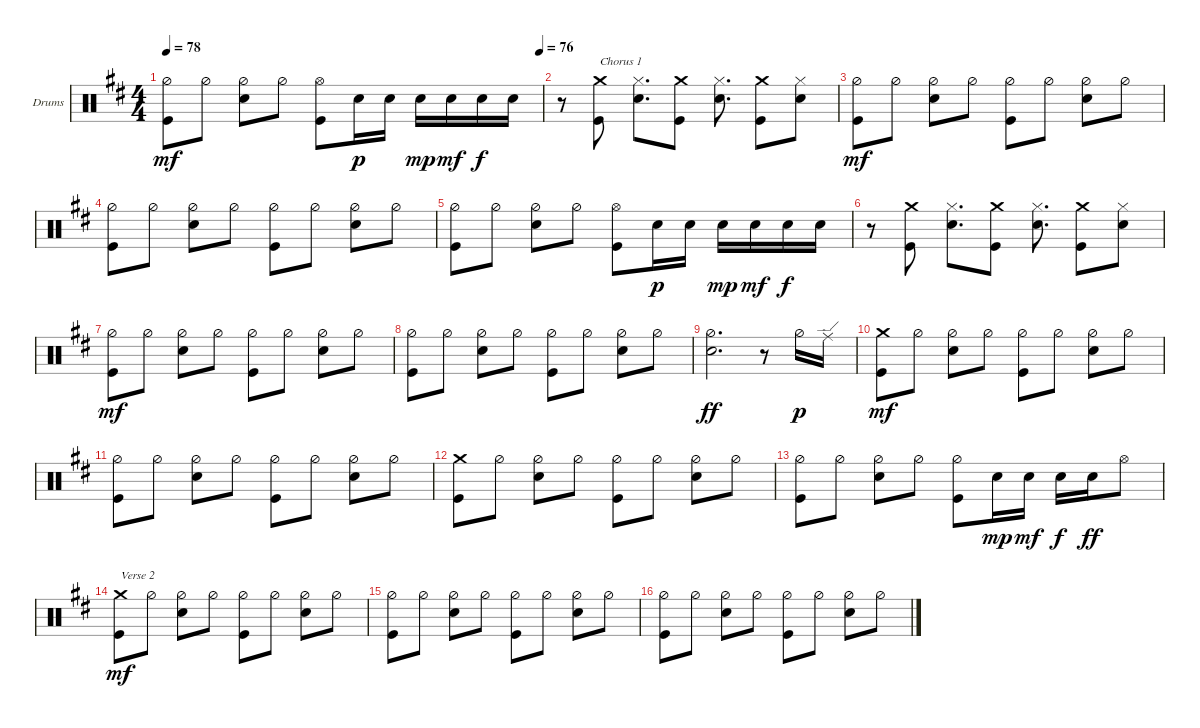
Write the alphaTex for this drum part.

\defaultSystemsLayout 4
\bracketExtendMode groupsimilarinstruments
\firstSystemTrackNameOrientation horizontal
\otherSystemsTrackNameOrientation horizontal
\track ("Drums" "Drums") {instrument percussion}
\staff {score}
\articulation defaults
\ts (4 4)
\tempo 78
\tempo (76 0.99375)
\clef neutral
\ks bminor
("Hi-Hat (half)" "Kick (hit)").8{dy mf} "Hi-Hat (half)".8 ("Hi-Hat (half)" "Snare (hit) 2").8 "Hi-Hat (half)".8 ("Hi-Hat (open)" "Kick (hit)").8 "Snare (hit) 2".16{dy p} "Snare (hit) 2".16 "Snare (hit) 2".16{dy mp} "Snare (hit) 2".16{dy mf} "Snare (hit) 2".16{dy f} "Snare (hit) 2".16 |
r.8 ("Kick (hit)" "Crash medium (hit)").8{txt "Chorus 1"} ("Snare (hit) 2" "Hi-Hat (closed)").8{d} ("Kick (hit)" "Crash medium (hit)").8 ("Snare (hit) 2" "Hi-Hat (closed)").8{d} ("Kick (hit)" "Crash medium (hit)").8 ("Snare (hit) 2" "Hi-Hat (closed)").8 |
("Hi-Hat (half)" "Kick (hit)").8{dy mf} "Hi-Hat (half)".8 ("Hi-Hat (half)" "Snare (hit) 2").8 "Hi-Hat (half)".8 ("Hi-Hat (half)" "Kick (hit)").8 "Hi-Hat (half)".8 ("Hi-Hat (half)" "Snare (hit) 2").8 "Hi-Hat (half)".8 |
("Hi-Hat (half)" "Kick (hit)").8 "Hi-Hat (half)".8 ("Hi-Hat (half)" "Snare (hit) 2").8 "Hi-Hat (half)".8 ("Hi-Hat (half)" "Kick (hit)").8 "Hi-Hat (half)".8 ("Hi-Hat (half)" "Snare (hit) 2").8 "Hi-Hat (half)".8 |
("Hi-Hat (half)" "Kick (hit)").8 "Hi-Hat (half)".8 ("Hi-Hat (half)" "Snare (hit) 2").8 "Hi-Hat (half)".8 ("Hi-Hat (open)" "Kick (hit)").8 "Snare (hit) 2".16{dy p} "Snare (hit) 2".16 "Snare (hit) 2".16{dy mp} "Snare (hit) 2".16{dy mf} "Snare (hit) 2".16{dy f} "Snare (hit) 2".16 |
r.8 ("Kick (hit)" "Crash medium (hit)").8 ("Snare (hit) 2" "Hi-Hat (closed)").8{d} ("Kick (hit)" "Crash medium (hit)").8 ("Snare (hit) 2" "Hi-Hat (closed)").8{d} ("Kick (hit)" "Crash medium (hit)").8 ("Snare (hit) 2" "Hi-Hat (closed)").8 |
("Hi-Hat (half)" "Kick (hit)").8{dy mf} "Hi-Hat (half)".8 ("Hi-Hat (half)" "Snare (hit) 2").8 "Hi-Hat (half)".8 ("Hi-Hat (half)" "Kick (hit)").8 "Hi-Hat (half)".8 ("Hi-Hat (half)" "Snare (hit) 2").8 "Hi-Hat (half)".8 |
("Hi-Hat (half)" "Kick (hit)").8 "Hi-Hat (half)".8 ("Hi-Hat (half)" "Snare (hit) 2").8 "Hi-Hat (half)".8 ("Hi-Hat (half)" "Kick (hit)").8 "Hi-Hat (half)".8 ("Hi-Hat (half)" "Snare (hit) 2").8 "Hi-Hat (half)".8 |
("Hi-Hat (half)" "Snare (hit) 2").2{d dy ff} r.8 "Hi-Hat (half)".16{dy p} "Ride (edge)".16 |
("Kick (hit)" "Crash medium (hit)").8{dy mf} "Hi-Hat (half)".8 ("Hi-Hat (half)" "Snare (hit) 2").8 "Hi-Hat (half)".8 ("Hi-Hat (half)" "Kick (hit)").8 "Hi-Hat (half)".8 ("Hi-Hat (half)" "Snare (hit) 2").8 "Hi-Hat (half)".8 |
("Hi-Hat (half)" "Kick (hit)").8 "Hi-Hat (half)".8 ("Hi-Hat (half)" "Snare (hit) 2").8 "Hi-Hat (half)".8 ("Hi-Hat (half)" "Kick (hit)").8 "Hi-Hat (half)".8 ("Hi-Hat (half)" "Snare (hit) 2").8 "Hi-Hat (half)".8 |
("Kick (hit)" "Crash medium (hit)").8 "Hi-Hat (half)".8 ("Hi-Hat (half)" "Snare (hit) 2").8 "Hi-Hat (half)".8 ("Hi-Hat (half)" "Kick (hit)").8 "Hi-Hat (half)".8 ("Hi-Hat (half)" "Snare (hit) 2").8 "Hi-Hat (half)".8 |
("Hi-Hat (half)" "Kick (hit)").8 "Hi-Hat (half)".8 ("Hi-Hat (half)" "Snare (hit) 2").8 "Hi-Hat (half)".8 ("Hi-Hat (half)" "Kick (hit)").8 "Snare (hit) 2".16{dy mp} "Snare (hit) 2".16{dy mf} "Snare (hit) 2".16{dy f} "Snare (hit) 2".16{dy ff} "Hi-Hat (open)".8 |
("Kick (hit)" "Crash medium (hit)").8{txt "Verse 2" dy mf} "Hi-Hat (half)".8 ("Hi-Hat (half)" "Snare (hit) 2").8 "Hi-Hat (half)".8 ("Hi-Hat (half)" "Kick (hit)").8 "Hi-Hat (half)".8 ("Hi-Hat (half)" "Snare (hit) 2").8 "Hi-Hat (half)".8 |
("Hi-Hat (half)" "Kick (hit)").8 "Hi-Hat (half)".8 ("Hi-Hat (half)" "Snare (hit) 2").8 "Hi-Hat (half)".8 ("Hi-Hat (half)" "Kick (hit)").8 "Hi-Hat (half)".8 ("Hi-Hat (half)" "Snare (hit) 2").8 "Hi-Hat (half)".8 |
("Hi-Hat (half)" "Kick (hit)").8 "Hi-Hat (half)".8 ("Hi-Hat (half)" "Snare (hit) 2").8 "Hi-Hat (half)".8 ("Hi-Hat (half)" "Kick (hit)").8 "Hi-Hat (half)".8 ("Hi-Hat (half)" "Snare (hit) 2").8 "Hi-Hat (half)".8
